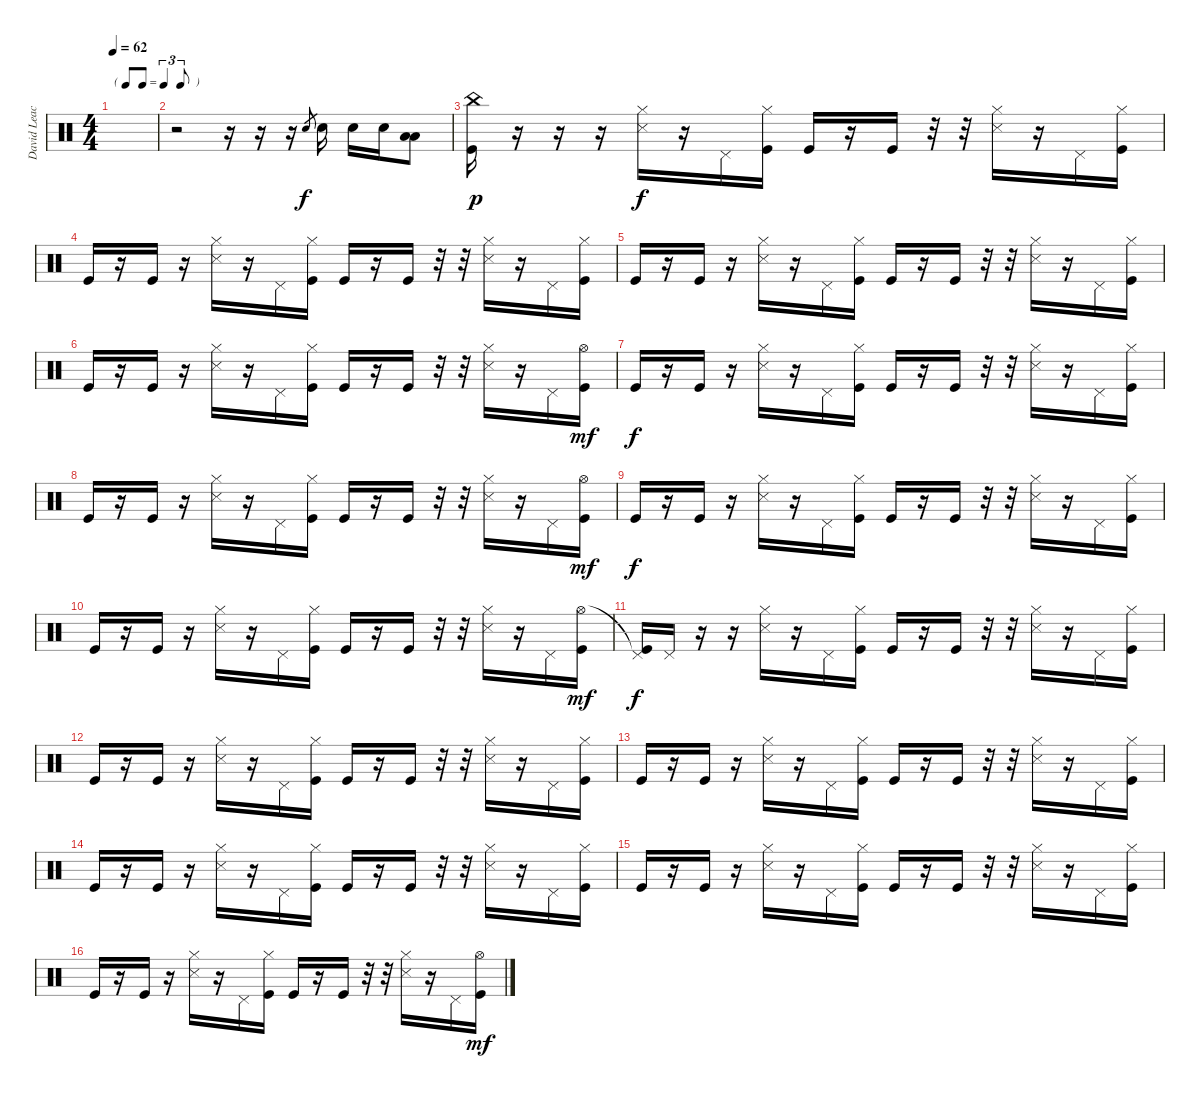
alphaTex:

\track ("David Leach-(Percussions)" "David Leac") {instrument percussion}
\staff {score}
\articulation defaults
\ts (4 4)
\tf triplet8th
\tempo 62
\clef neutral
\ks c
|
r.2 r.16 r.16 r.16 "Electric Snare (hit)".8{gr} "Electric Snare (hit)".16 "Electric Snare (hit)".16 "Electric Snare (hit)".16 ("Low Tom (hit)" "Low Floor Tom (hit)").8 |
("China (hit)" "Kick (hit)").16{dy p} r.16 r.16 r.16 ("Hi-Hat (closed)" "Snare (side stick) 3").16{dy f} r.16 "Pedal Hi-Hat (hit)".16 ("Hi-Hat (closed)" "Kick (hit)").16 "Kick (hit)".16 r.16 "Kick (hit)".16 r.32 r.32 ("Hi-Hat (closed)" "Snare (side stick) 3").16 r.16 "Pedal Hi-Hat (hit)".16 ("Hi-Hat (closed)" "Kick (hit)").16 |
"Kick (hit)".16 r.16 "Kick (hit)".16 r.16 ("Hi-Hat (closed)" "Snare (side stick) 3").16 r.16 "Pedal Hi-Hat (hit)".16 ("Hi-Hat (closed)" "Kick (hit)").16 "Kick (hit)".16 r.16 "Kick (hit)".16 r.32 r.32 ("Hi-Hat (closed)" "Snare (side stick) 3").16 r.16 "Pedal Hi-Hat (hit)".16 ("Hi-Hat (closed)" "Kick (hit)").16 |
"Kick (hit)".16 r.16 "Kick (hit)".16 r.16 ("Hi-Hat (closed)" "Snare (side stick) 3").16 r.16 "Pedal Hi-Hat (hit)".16 ("Hi-Hat (closed)" "Kick (hit)").16 "Kick (hit)".16 r.16 "Kick (hit)".16 r.32 r.32 ("Hi-Hat (closed)" "Snare (side stick) 3").16 r.16 "Pedal Hi-Hat (hit)".16 ("Hi-Hat (closed)" "Kick (hit)").16 |
"Kick (hit)".16 r.16 "Kick (hit)".16 r.16 ("Hi-Hat (closed)" "Snare (side stick) 3").16 r.16 "Pedal Hi-Hat (hit)".16 ("Hi-Hat (closed)" "Kick (hit)").16 "Kick (hit)".16 r.16 "Kick (hit)".16 r.32 r.32 ("Hi-Hat (closed)" "Snare (side stick) 3").16 r.16 "Pedal Hi-Hat (hit)".16 ("Hi-Hat (open)" "Kick (hit)").16{dy mf} |
"Kick (hit)".16{dy f} r.16 "Kick (hit)".16 r.16 ("Hi-Hat (closed)" "Snare (side stick) 3").16 r.16 "Pedal Hi-Hat (hit)".16 ("Hi-Hat (closed)" "Kick (hit)").16 "Kick (hit)".16 r.16 "Kick (hit)".16 r.32 r.32 ("Hi-Hat (closed)" "Snare (side stick) 3").16 r.16 "Pedal Hi-Hat (hit)".16 ("Hi-Hat (closed)" "Kick (hit)").16 |
"Kick (hit)".16 r.16 "Kick (hit)".16 r.16 ("Hi-Hat (closed)" "Snare (side stick) 3").16 r.16 "Pedal Hi-Hat (hit)".16 ("Hi-Hat (closed)" "Kick (hit)").16 "Kick (hit)".16 r.16 "Kick (hit)".16 r.32 r.32 ("Hi-Hat (closed)" "Snare (side stick) 3").16 r.16 "Pedal Hi-Hat (hit)".16 ("Hi-Hat (open)" "Kick (hit)").16{dy mf} |
"Kick (hit)".16{dy f} r.16 "Kick (hit)".16 r.16 ("Hi-Hat (closed)" "Snare (side stick) 3").16 r.16 "Pedal Hi-Hat (hit)".16 ("Hi-Hat (closed)" "Kick (hit)").16 "Kick (hit)".16 r.16 "Kick (hit)".16 r.32 r.32 ("Hi-Hat (closed)" "Snare (side stick) 3").16 r.16 "Pedal Hi-Hat (hit)".16 ("Hi-Hat (closed)" "Kick (hit)").16 |
"Kick (hit)".16 r.16 "Kick (hit)".16 r.16 ("Hi-Hat (closed)" "Snare (side stick) 3").16 r.16 "Pedal Hi-Hat (hit)".16 ("Hi-Hat (closed)" "Kick (hit)").16 "Kick (hit)".16 r.16 "Kick (hit)".16 r.32 r.32 ("Hi-Hat (closed)" "Snare (side stick) 3").16 r.16 "Pedal Hi-Hat (hit)".16 ("Hi-Hat (open)" "Kick (hit)").16{dy mf} |
("Pedal Hi-Hat (hit)"{t} "Kick (hit)").16{dy f} "Pedal Hi-Hat (hit)".16 r.16 r.16 ("Hi-Hat (closed)" "Snare (side stick) 3").16 r.16 "Pedal Hi-Hat (hit)".16 ("Hi-Hat (closed)" "Kick (hit)").16 "Kick (hit)".16 r.16 "Kick (hit)".16 r.32 r.32 ("Hi-Hat (closed)" "Snare (side stick) 3").16 r.16 "Pedal Hi-Hat (hit)".16 ("Hi-Hat (closed)" "Kick (hit)").16 |
"Kick (hit)".16 r.16 "Kick (hit)".16 r.16 ("Hi-Hat (closed)" "Snare (side stick) 3").16 r.16 "Pedal Hi-Hat (hit)".16 ("Hi-Hat (closed)" "Kick (hit)").16 "Kick (hit)".16 r.16 "Kick (hit)".16 r.32 r.32 ("Hi-Hat (closed)" "Snare (side stick) 3").16 r.16 "Pedal Hi-Hat (hit)".16 ("Hi-Hat (closed)" "Kick (hit)").16 |
"Kick (hit)".16 r.16 "Kick (hit)".16 r.16 ("Hi-Hat (closed)" "Snare (side stick) 3").16 r.16 "Pedal Hi-Hat (hit)".16 ("Hi-Hat (closed)" "Kick (hit)").16 "Kick (hit)".16 r.16 "Kick (hit)".16 r.32 r.32 ("Hi-Hat (closed)" "Snare (side stick) 3").16 r.16 "Pedal Hi-Hat (hit)".16 ("Hi-Hat (closed)" "Kick (hit)").16 |
"Kick (hit)".16 r.16 "Kick (hit)".16 r.16 ("Hi-Hat (closed)" "Snare (side stick) 3").16 r.16 "Pedal Hi-Hat (hit)".16 ("Hi-Hat (closed)" "Kick (hit)").16 "Kick (hit)".16 r.16 "Kick (hit)".16 r.32 r.32 ("Hi-Hat (closed)" "Snare (side stick) 3").16 r.16 "Pedal Hi-Hat (hit)".16 ("Hi-Hat (closed)" "Kick (hit)").16 |
"Kick (hit)".16 r.16 "Kick (hit)".16 r.16 ("Hi-Hat (closed)" "Snare (side stick) 3").16 r.16 "Pedal Hi-Hat (hit)".16 ("Hi-Hat (closed)" "Kick (hit)").16 "Kick (hit)".16 r.16 "Kick (hit)".16 r.32 r.32 ("Hi-Hat (closed)" "Snare (side stick) 3").16 r.16 "Pedal Hi-Hat (hit)".16 ("Hi-Hat (closed)" "Kick (hit)").16 |
"Kick (hit)".16 r.16 "Kick (hit)".16 r.16 ("Hi-Hat (closed)" "Snare (side stick) 3").16 r.16 "Pedal Hi-Hat (hit)".16 ("Hi-Hat (closed)" "Kick (hit)").16 "Kick (hit)".16 r.16 "Kick (hit)".16 r.32 r.32 ("Hi-Hat (closed)" "Snare (side stick) 3").16 r.16 "Pedal Hi-Hat (hit)".16 ("Hi-Hat (open)" "Kick (hit)").16{dy mf}
